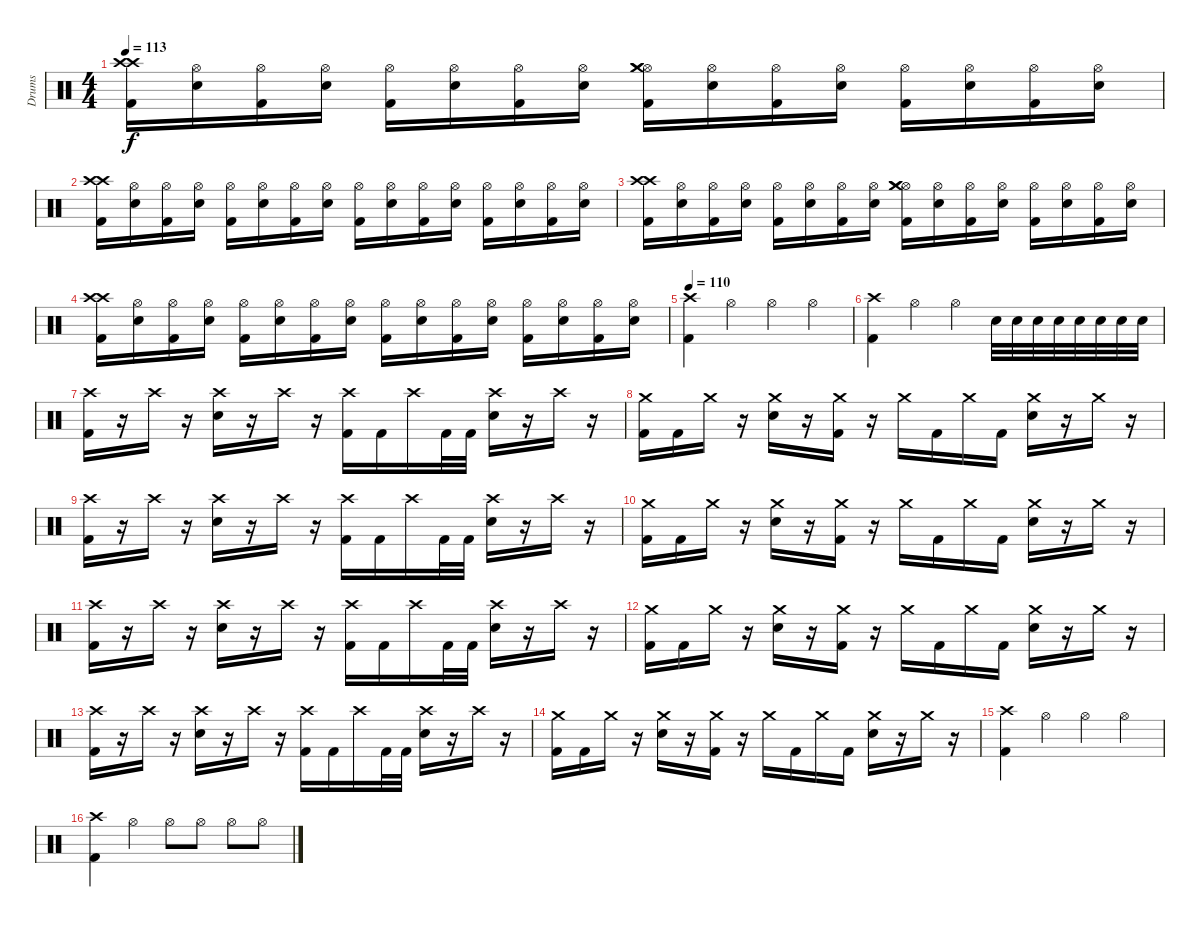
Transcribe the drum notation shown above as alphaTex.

\track ("Drums" "Drums") {instrument percussion}
\staff {score}
\articulation defaults
\ts (4 4)
\tempo 113
\clef neutral
\ks c
("Crash high (hit)" "Kick (hit) 2" "Crash high (hit)").16{dy f} ("Hi-Hat (open)" "Snare (hit) 2").16 ("Hi-Hat (open)" "Kick (hit) 2").16 ("Hi-Hat (open)" "Snare (hit) 2").16 ("Hi-Hat (open)" "Kick (hit) 2").16 ("Hi-Hat (open)" "Snare (hit) 2").16 ("Hi-Hat (open)" "Kick (hit) 2").16 ("Hi-Hat (open)" "Snare (hit) 2").16 ("Hi-Hat (open)" "Crash medium (hit)" "Kick (hit) 2" "Crash medium (hit)").16 ("Hi-Hat (open)" "Snare (hit) 2").16 ("Hi-Hat (open)" "Kick (hit) 2").16 ("Hi-Hat (open)" "Snare (hit) 2").16 ("Hi-Hat (open)" "Kick (hit) 2").16 ("Hi-Hat (open)" "Snare (hit) 2").16 ("Hi-Hat (open)" "Kick (hit) 2").16 ("Hi-Hat (open)" "Snare (hit) 2").16 |
("Crash high (hit)" "Kick (hit) 2" "Crash high (hit)").16 ("Hi-Hat (open)" "Snare (hit) 2").16 ("Hi-Hat (open)" "Kick (hit) 2").16 ("Hi-Hat (open)" "Snare (hit) 2").16 ("Hi-Hat (open)" "Kick (hit) 2").16 ("Hi-Hat (open)" "Snare (hit) 2").16 ("Hi-Hat (open)" "Kick (hit) 2").16 ("Hi-Hat (open)" "Snare (hit) 2").16 ("Hi-Hat (open)" "Kick (hit) 2").16 ("Hi-Hat (open)" "Snare (hit) 2").16 ("Hi-Hat (open)" "Kick (hit) 2").16 ("Hi-Hat (open)" "Snare (hit) 2").16 ("Hi-Hat (open)" "Kick (hit) 2").16 ("Hi-Hat (open)" "Snare (hit) 2").16 ("Hi-Hat (open)" "Kick (hit) 2").16 ("Hi-Hat (open)" "Snare (hit) 2").16 |
("Crash high (hit)" "Kick (hit) 2" "Crash high (hit)").16 ("Hi-Hat (open)" "Snare (hit) 2").16 ("Hi-Hat (open)" "Kick (hit) 2").16 ("Hi-Hat (open)" "Snare (hit) 2").16 ("Hi-Hat (open)" "Kick (hit) 2").16 ("Hi-Hat (open)" "Snare (hit) 2").16 ("Hi-Hat (open)" "Kick (hit) 2").16 ("Hi-Hat (open)" "Snare (hit) 2").16 ("Hi-Hat (open)" "Crash medium (hit)" "Kick (hit) 2" "Crash medium (hit)").16 ("Hi-Hat (open)" "Snare (hit) 2").16 ("Hi-Hat (open)" "Kick (hit) 2").16 ("Hi-Hat (open)" "Snare (hit) 2").16 ("Hi-Hat (open)" "Kick (hit) 2").16 ("Hi-Hat (open)" "Snare (hit) 2").16 ("Hi-Hat (open)" "Kick (hit) 2").16 ("Hi-Hat (open)" "Snare (hit) 2").16 |
("Crash high (hit)" "Kick (hit) 2" "Crash high (hit)").16 ("Hi-Hat (open)" "Snare (hit) 2").16 ("Hi-Hat (open)" "Kick (hit) 2").16 ("Hi-Hat (open)" "Snare (hit) 2").16 ("Hi-Hat (open)" "Kick (hit) 2").16 ("Hi-Hat (open)" "Snare (hit) 2").16 ("Hi-Hat (open)" "Kick (hit) 2").16 ("Hi-Hat (open)" "Snare (hit) 2").16 ("Hi-Hat (open)" "Kick (hit) 2").16 ("Hi-Hat (open)" "Snare (hit) 2").16 ("Hi-Hat (open)" "Kick (hit) 2").16 ("Hi-Hat (open)" "Snare (hit) 2").16 ("Hi-Hat (open)" "Kick (hit) 2").16 ("Hi-Hat (open)" "Snare (hit) 2").16 ("Hi-Hat (open)" "Kick (hit) 2").16 ("Hi-Hat (open)" "Snare (hit) 2").16 |
\tempo 110
("Kick (hit) 2" "Crash high (hit)").4 "Hi-Hat (open)".4 "Hi-Hat (open)".4 "Hi-Hat (open)".4 |
("Crash high (hit)" "Kick (hit) 2").4 "Hi-Hat (open)".4 "Hi-Hat (open)".4 "Snare (hit) 2".32 "Snare (hit) 2".32 "Snare (hit) 2".32 "Snare (hit) 2".32 "Snare (hit) 2".32 "Snare (hit) 2".32 "Snare (hit) 2".32 "Snare (hit) 2".32 |
("Crash high (hit)" "Kick (hit) 2").16 r.16 "Crash high (hit)".16 r.16 ("Crash high (hit)" "Snare (hit) 2").16 r.16 "Crash high (hit)".16 r.16 ("Crash high (hit)" "Kick (hit) 2").16 "Kick (hit) 2".16 "Crash high (hit)".16 "Kick (hit) 2".32 "Kick (hit) 2".32 ("Crash high (hit)" "Snare (hit) 2").16 r.16 "Crash high (hit)".16 r.16 |
("Crash medium (hit)" "Kick (hit) 2").16 "Kick (hit) 2".16 "Crash medium (hit)".16 r.16 ("Crash medium (hit)" "Snare (hit) 2").16 r.16 ("Crash medium (hit)" "Kick (hit) 2").16 r.16 "Crash medium (hit)".16 "Kick (hit) 2".16 "Crash medium (hit)".16 "Kick (hit) 2".16 ("Crash medium (hit)" "Snare (hit) 2").16 r.16 "Crash medium (hit)".16 r.16 |
("Crash high (hit)" "Kick (hit) 2").16 r.16 "Crash high (hit)".16 r.16 ("Crash high (hit)" "Snare (hit) 2").16 r.16 "Crash high (hit)".16 r.16 ("Crash high (hit)" "Kick (hit) 2").16 "Kick (hit) 2".16 "Crash high (hit)".16 "Kick (hit) 2".32 "Kick (hit) 2".32 ("Crash high (hit)" "Snare (hit) 2").16 r.16 "Crash high (hit)".16 r.16 |
("Crash medium (hit)" "Kick (hit) 2").16 "Kick (hit) 2".16 "Crash medium (hit)".16 r.16 ("Crash medium (hit)" "Snare (hit) 2").16 r.16 ("Crash medium (hit)" "Kick (hit) 2").16 r.16 "Crash medium (hit)".16 "Kick (hit) 2".16 "Crash medium (hit)".16 "Kick (hit) 2".16 ("Crash medium (hit)" "Snare (hit) 2").16 r.16 "Crash medium (hit)".16 r.16 |
("Crash high (hit)" "Kick (hit) 2").16 r.16 "Crash high (hit)".16 r.16 ("Crash high (hit)" "Snare (hit) 2").16 r.16 "Crash high (hit)".16 r.16 ("Crash high (hit)" "Kick (hit) 2").16 "Kick (hit) 2".16 "Crash high (hit)".16 "Kick (hit) 2".32 "Kick (hit) 2".32 ("Crash high (hit)" "Snare (hit) 2").16 r.16 "Crash high (hit)".16 r.16 |
("Crash medium (hit)" "Kick (hit) 2").16 "Kick (hit) 2".16 "Crash medium (hit)".16 r.16 ("Crash medium (hit)" "Snare (hit) 2").16 r.16 ("Crash medium (hit)" "Kick (hit) 2").16 r.16 "Crash medium (hit)".16 "Kick (hit) 2".16 "Crash medium (hit)".16 "Kick (hit) 2".16 ("Crash medium (hit)" "Snare (hit) 2").16 r.16 "Crash medium (hit)".16 r.16 |
("Crash high (hit)" "Kick (hit) 2").16 r.16 "Crash high (hit)".16 r.16 ("Crash high (hit)" "Snare (hit) 2").16 r.16 "Crash high (hit)".16 r.16 ("Crash high (hit)" "Kick (hit) 2").16 "Kick (hit) 2".16 "Crash high (hit)".16 "Kick (hit) 2".32 "Kick (hit) 2".32 ("Crash high (hit)" "Snare (hit) 2").16 r.16 "Crash high (hit)".16 r.16 |
("Crash medium (hit)" "Kick (hit) 2").16 "Kick (hit) 2".16 "Crash medium (hit)".16 r.16 ("Crash medium (hit)" "Snare (hit) 2").16 r.16 ("Crash medium (hit)" "Kick (hit) 2").16 r.16 "Crash medium (hit)".16 "Kick (hit) 2".16 "Crash medium (hit)".16 "Kick (hit) 2".16 ("Crash medium (hit)" "Snare (hit) 2").16 r.16 "Crash medium (hit)".16 r.16 |
("Kick (hit) 2" "Crash high (hit)").4 "Hi-Hat (open)".4 "Hi-Hat (open)".4 "Hi-Hat (open)".4 |
("Crash high (hit)" "Kick (hit) 2").4 "Hi-Hat (open)".4 "Hi-Hat (open)".8 "Hi-Hat (open)".8 "Hi-Hat (open)".8 "Hi-Hat (open)".8
